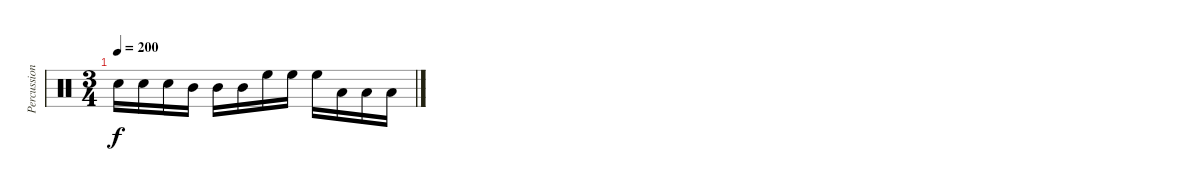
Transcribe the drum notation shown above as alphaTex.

\track ("Percussion" "Percussion") {instrument percussion}
\staff {score}
\articulation defaults
\ts (3 4)
\tempo 200
\clef neutral
\ks c "Snare (hit) 2".16{dy f} "Snare (hit) 2".16 "Snare (hit) 2".16 "Mid Tom (hit)".16 "Mid Tom (hit)".16 "Mid Tom (hit)".16 "High Floor Tom (hit)".16 "High Floor Tom (hit)".16 "High Floor Tom (hit)".16 "Low Tom (hit)".16 "Low Tom (hit)".16 "Low Tom (hit)".16
